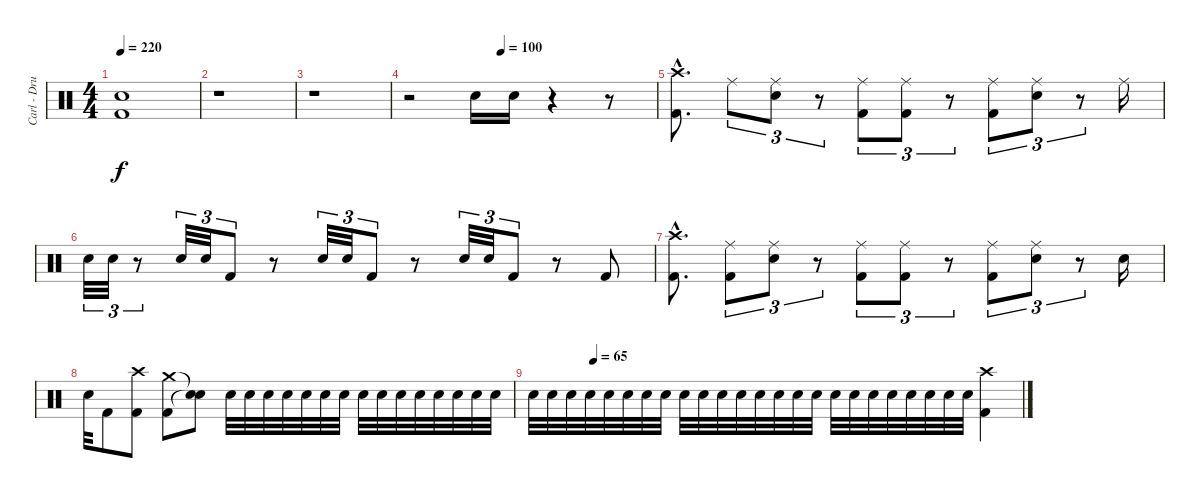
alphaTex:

\track ("Carl - Drums" "Carl - Dru") {instrument percussion}
\staff {score}
\articulation defaults
\ts (4 4)
\tempo 220
\clef neutral
\ks c
("Electric Snare (hit)" "Kick (hit) 2").1{dy f} |
r.1 |
r.1 |
\tempo (100 0.375)
r.2 "Electric Snare (hit)".16 "Electric Snare (hit)".16 r.4 r.8 |
("Crash high (hit)"{hac} "Kick (hit) 2"{hac}).8{d} "Ride (middle)".8{tu (3 2)} ("Electric Snare (hit)" "Ride (middle)").8{tu (3 2)} r.8{tu (3 2)} ("Ride (middle)" "Kick (hit) 2").8{tu (3 2)} ("Ride (middle)" "Kick (hit) 2").8{tu (3 2)} r.8{tu (3 2)} ("Ride (middle)" "Kick (hit) 2").8{tu (3 2)} ("Electric Snare (hit)" "Ride (middle)").8{tu (3 2)} r.8{tu (3 2)} "Ride (middle)".16 |
"Electric Snare (hit)".32{tu (3 2)} "Electric Snare (hit)".32{tu (3 2)} r.8{tu (3 2)} "Electric Snare (hit)".32{tu (3 2)} "Electric Snare (hit)".32{tu (3 2)} "Kick (hit) 2".8{tu (3 2)} r.8 "Electric Snare (hit)".32{tu (3 2)} "Electric Snare (hit)".32{tu (3 2)} "Kick (hit) 2".8{tu (3 2)} r.8 "Electric Snare (hit)".32{tu (3 2)} "Electric Snare (hit)".32{tu (3 2)} "Kick (hit) 2".8{tu (3 2)} r.8 "Kick (hit) 2".8 |
("Crash high (hit)"{hac} "Kick (hit) 2"{hac}).8{d} ("Ride (middle)" "Kick (hit) 2").8{tu (3 2)} ("Electric Snare (hit)" "Ride (middle)").8{tu (3 2)} r.8{tu (3 2)} ("Ride (middle)" "Kick (hit) 2").8{tu (3 2)} ("Ride (middle)" "Kick (hit) 2").8{tu (3 2)} r.8{tu (3 2)} ("Ride (middle)" "Kick (hit) 2").8{tu (3 2)} ("Electric Snare (hit)" "Ride (middle)").8{tu (3 2)} r.8{tu (3 2)} "Electric Snare (hit)".16 |
"Electric Snare (hit)".32 "Kick (hit) 2".8 ("Crash high (hit)" "Kick (hit) 2").8 ("Crash medium (hit)" "Kick (hit) 2").8 ("Snare (hit)"{t} "Electric Snare (hit)"{t}).8 "Electric Snare (hit)".32 "Electric Snare (hit)".32 "Electric Snare (hit)".32 "Electric Snare (hit)".32 "Electric Snare (hit)".32 "Electric Snare (hit)".32 "Electric Snare (hit)".32 "Electric Snare (hit)".32 "Electric Snare (hit)".32 "Electric Snare (hit)".32 "Electric Snare (hit)".32 "Electric Snare (hit)".32 "Electric Snare (hit)".32 "Electric Snare (hit)".32 "Electric Snare (hit)".32 |
\tempo (65 0.125)
"Electric Snare (hit)".32 "Electric Snare (hit)".32 "Electric Snare (hit)".32 "Electric Snare (hit)".32 "Electric Snare (hit)".32 "Electric Snare (hit)".32 "Electric Snare (hit)".32 "Electric Snare (hit)".32 "Electric Snare (hit)".32 "Electric Snare (hit)".32 "Electric Snare (hit)".32 "Electric Snare (hit)".32 "Electric Snare (hit)".32 "Electric Snare (hit)".32 "Electric Snare (hit)".32 "Electric Snare (hit)".32 "Electric Snare (hit)".32 "Electric Snare (hit)".32 "Electric Snare (hit)".32 "Electric Snare (hit)".32 "Electric Snare (hit)".32 "Electric Snare (hit)".32 "Electric Snare (hit)".32 "Electric Snare (hit)".32 ("Crash high (hit)" "Kick (hit) 2").4
